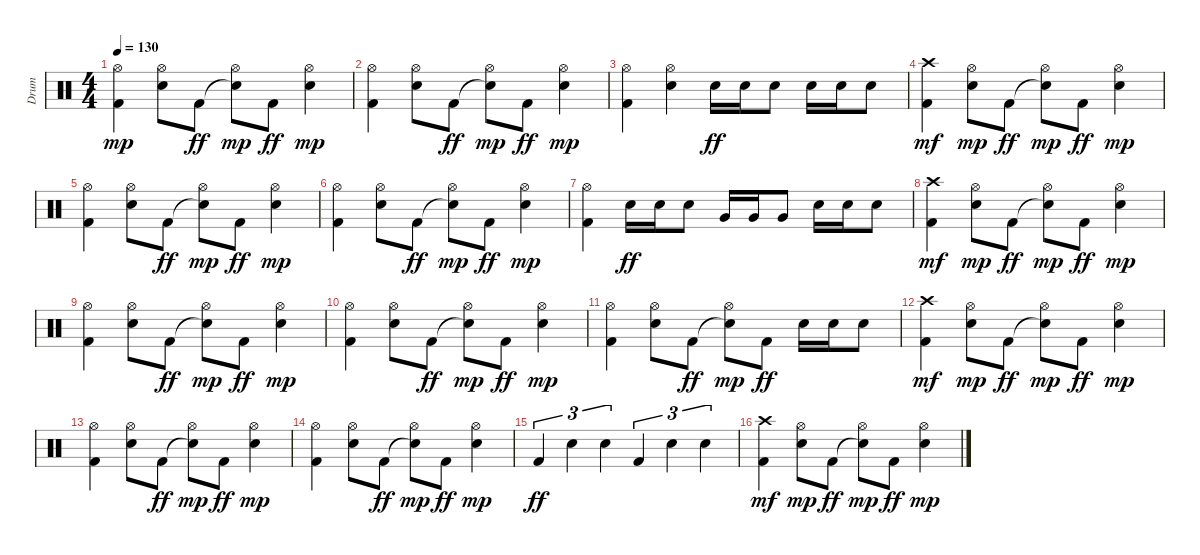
\track ("Drum" "Drum") {instrument percussion}
\staff {score}
\articulation defaults
\ts (4 4)
\tempo 130
\clef neutral
\ks c
("Kick (hit) 2" "Hi-Hat (open)").4{dy mp} ("Electric Snare (hit)" "Hi-Hat (open)").8 "Kick (hit) 2".8{dy ff} ("Snare (hit)"{t} "Hi-Hat (open)").8{dy mp} "Kick (hit) 2".8{dy ff} ("Electric Snare (hit)" "Hi-Hat (open)").4{dy mp} |
("Kick (hit) 2" "Hi-Hat (open)").4 ("Electric Snare (hit)" "Hi-Hat (open)").8 "Kick (hit) 2".8{dy ff} ("Snare (hit)"{t} "Hi-Hat (open)").8{dy mp} "Kick (hit) 2".8{dy ff} ("Electric Snare (hit)" "Hi-Hat (open)").4{dy mp} |
("Kick (hit) 2" "Hi-Hat (open)").4 ("Electric Snare (hit)" "Hi-Hat (open)").4 "Electric Snare (hit)".16{dy ff} "Electric Snare (hit)".16 "Electric Snare (hit)".8 "Electric Snare (hit)".16 "Electric Snare (hit)".16 "Electric Snare (hit)".8 |
("Kick (hit) 2" "Crash high (hit)").4{dy mf} ("Electric Snare (hit)" "Hi-Hat (open)").8{dy mp} "Kick (hit) 2".8{dy ff} ("Snare (hit)"{t} "Hi-Hat (open)").8{dy mp} "Kick (hit) 2".8{dy ff} ("Electric Snare (hit)" "Hi-Hat (open)").4{dy mp} |
("Kick (hit) 2" "Hi-Hat (open)").4 ("Electric Snare (hit)" "Hi-Hat (open)").8 "Kick (hit) 2".8{dy ff} ("Snare (hit)"{t} "Hi-Hat (open)").8{dy mp} "Kick (hit) 2".8{dy ff} ("Electric Snare (hit)" "Hi-Hat (open)").4{dy mp} |
("Kick (hit) 2" "Hi-Hat (open)").4 ("Electric Snare (hit)" "Hi-Hat (open)").8 "Kick (hit) 2".8{dy ff} ("Snare (hit)"{t} "Hi-Hat (open)").8{dy mp} "Kick (hit) 2".8{dy ff} ("Electric Snare (hit)" "Hi-Hat (open)").4{dy mp} |
("Kick (hit) 2" "Hi-Hat (open)").4 "Electric Snare (hit)".16{dy ff} "Electric Snare (hit)".16 "Electric Snare (hit)".8 "Very Low Tom (hit)".16 "Very Low Tom (hit)".16 "Very Low Tom (hit)".8 "Electric Snare (hit)".16 "Electric Snare (hit)".16 "Electric Snare (hit)".8 |
("Kick (hit) 2" "Crash high (hit)").4{dy mf} ("Electric Snare (hit)" "Hi-Hat (open)").8{dy mp} "Kick (hit) 2".8{dy ff} ("Snare (hit)"{t} "Hi-Hat (open)").8{dy mp} "Kick (hit) 2".8{dy ff} ("Electric Snare (hit)" "Hi-Hat (open)").4{dy mp} |
("Kick (hit) 2" "Hi-Hat (open)").4 ("Electric Snare (hit)" "Hi-Hat (open)").8 "Kick (hit) 2".8{dy ff} ("Snare (hit)"{t} "Hi-Hat (open)").8{dy mp} "Kick (hit) 2".8{dy ff} ("Electric Snare (hit)" "Hi-Hat (open)").4{dy mp} |
("Kick (hit) 2" "Hi-Hat (open)").4 ("Electric Snare (hit)" "Hi-Hat (open)").8 "Kick (hit) 2".8{dy ff} ("Snare (hit)"{t} "Hi-Hat (open)").8{dy mp} "Kick (hit) 2".8{dy ff} ("Electric Snare (hit)" "Hi-Hat (open)").4{dy mp} |
("Kick (hit) 2" "Hi-Hat (open)").4 ("Electric Snare (hit)" "Hi-Hat (open)").8 "Kick (hit) 2".8{dy ff} ("Snare (hit)"{t} "Hi-Hat (open)").8{dy mp} "Kick (hit) 2".8{dy ff} "Electric Snare (hit)".16 "Electric Snare (hit)".16 "Electric Snare (hit)".8 |
("Kick (hit) 2" "Crash high (hit)").4{dy mf} ("Electric Snare (hit)" "Hi-Hat (open)").8{dy mp} "Kick (hit) 2".8{dy ff} ("Snare (hit)"{t} "Hi-Hat (open)").8{dy mp} "Kick (hit) 2".8{dy ff} ("Electric Snare (hit)" "Hi-Hat (open)").4{dy mp} |
("Kick (hit) 2" "Hi-Hat (open)").4 ("Electric Snare (hit)" "Hi-Hat (open)").8 "Kick (hit) 2".8{dy ff} ("Snare (hit)"{t} "Hi-Hat (open)").8{dy mp} "Kick (hit) 2".8{dy ff} ("Electric Snare (hit)" "Hi-Hat (open)").4{dy mp} |
("Kick (hit) 2" "Hi-Hat (open)").4 ("Electric Snare (hit)" "Hi-Hat (open)").8 "Kick (hit) 2".8{dy ff} ("Snare (hit)"{t} "Hi-Hat (open)").8{dy mp} "Kick (hit) 2".8{dy ff} ("Electric Snare (hit)" "Hi-Hat (open)").4{dy mp} |
"Kick (hit) 2".4{tu (3 2) dy ff} "Electric Snare (hit)".4{tu (3 2)} "Electric Snare (hit)".4{tu (3 2)} "Kick (hit) 2".4{tu (3 2)} "Electric Snare (hit)".4{tu (3 2)} "Electric Snare (hit)".4{tu (3 2)} |
("Kick (hit) 2" "Crash high (hit)").4{dy mf} ("Electric Snare (hit)" "Hi-Hat (open)").8{dy mp} "Kick (hit) 2".8{dy ff} ("Snare (hit)"{t} "Hi-Hat (open)").8{dy mp} "Kick (hit) 2".8{dy ff} ("Electric Snare (hit)" "Hi-Hat (open)").4{dy mp}
